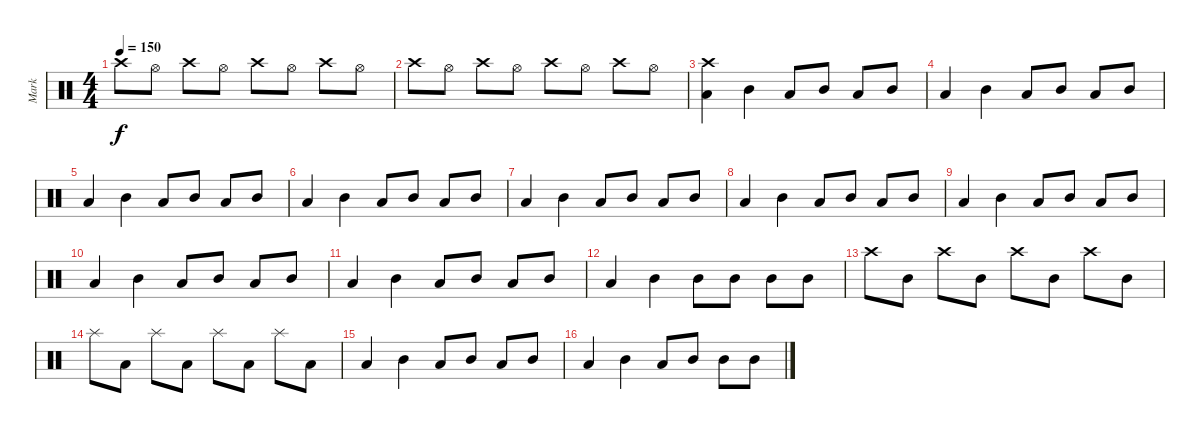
\track ("Mark" "Mark") {instrument percussion}
\staff {score}
\articulation defaults
\ts (4 4)
\tempo 150
\clef neutral
\ks c "Crash high (hit)".8{dy f} "Hi-Hat (open)".8 "Crash high (hit)".8 "Hi-Hat (open)".8 "Crash high (hit)".8 "Hi-Hat (open)".8 "Crash high (hit)".8 "Hi-Hat (open)".8
|
"Crash high (hit)".8 "Hi-Hat (open)".8 "Crash high (hit)".8 "Hi-Hat (open)".8 "Crash high (hit)".8 "Hi-Hat (open)".8 "Crash high (hit)".8 "Hi-Hat (open)".8 |
("Low Tom (hit)" "Crash high (hit)").4 "Mid Tom (hit)".4 "Low Tom (hit)".8 "Mid Tom (hit)".8 "Low Tom (hit)".8 "Mid Tom (hit)".8 |
"Low Tom (hit)".4 "Mid Tom (hit)".4 "Low Tom (hit)".8 "Mid Tom (hit)".8 "Low Tom (hit)".8 "Mid Tom (hit)".8 |
"Low Tom (hit)".4 "Mid Tom (hit)".4 "Low Tom (hit)".8 "Mid Tom (hit)".8 "Low Tom (hit)".8 "Mid Tom (hit)".8 |
"Low Tom (hit)".4 "Mid Tom (hit)".4 "Low Tom (hit)".8 "Mid Tom (hit)".8 "Low Tom (hit)".8 "Mid Tom (hit)".8 |
"Low Tom (hit)".4 "Mid Tom (hit)".4 "Low Tom (hit)".8 "Mid Tom (hit)".8 "Low Tom (hit)".8 "Mid Tom (hit)".8 |
"Low Tom (hit)".4 "Mid Tom (hit)".4 "Low Tom (hit)".8 "Mid Tom (hit)".8 "Low Tom (hit)".8 "Mid Tom (hit)".8 |
"Low Tom (hit)".4 "Mid Tom (hit)".4 "Low Tom (hit)".8 "Mid Tom (hit)".8 "Low Tom (hit)".8 "Mid Tom (hit)".8 |
"Low Tom (hit)".4 "Mid Tom (hit)".4 "Low Tom (hit)".8 "Mid Tom (hit)".8 "Low Tom (hit)".8 "Mid Tom (hit)".8 |
"Low Tom (hit)".4 "Mid Tom (hit)".4 "Low Tom (hit)".8 "Mid Tom (hit)".8 "Low Tom (hit)".8 "Mid Tom (hit)".8 |
"Low Tom (hit)".4 "Mid Tom (hit)".4 "Mid Tom (hit)".8 "Mid Tom (hit)".8 "Mid Tom (hit)".8 "Mid Tom (hit)".8 |
"Crash high (hit)".8 "Mid Tom (hit)".8 "Crash high (hit)".8 "Mid Tom (hit)".8 "Crash high (hit)".8 "Mid Tom (hit)".8 "Crash high (hit)".8 "Mid Tom (hit)".8 |
"Splash (hit)".8 "Low Tom (hit)".8 "Splash (hit)".8 "Low Tom (hit)".8 "Splash (hit)".8 "Low Tom (hit)".8 "Splash (hit)".8 "Low Tom (hit)".8 |
"Low Tom (hit)".4 "Mid Tom (hit)".4 "Low Tom (hit)".8 "Mid Tom (hit)".8 "Low Tom (hit)".8 "Mid Tom (hit)".8 |
"Low Tom (hit)".4 "Mid Tom (hit)".4 "Low Tom (hit)".8 "Mid Tom (hit)".8 "Mid Tom (hit)".8 "Mid Tom (hit)".8
